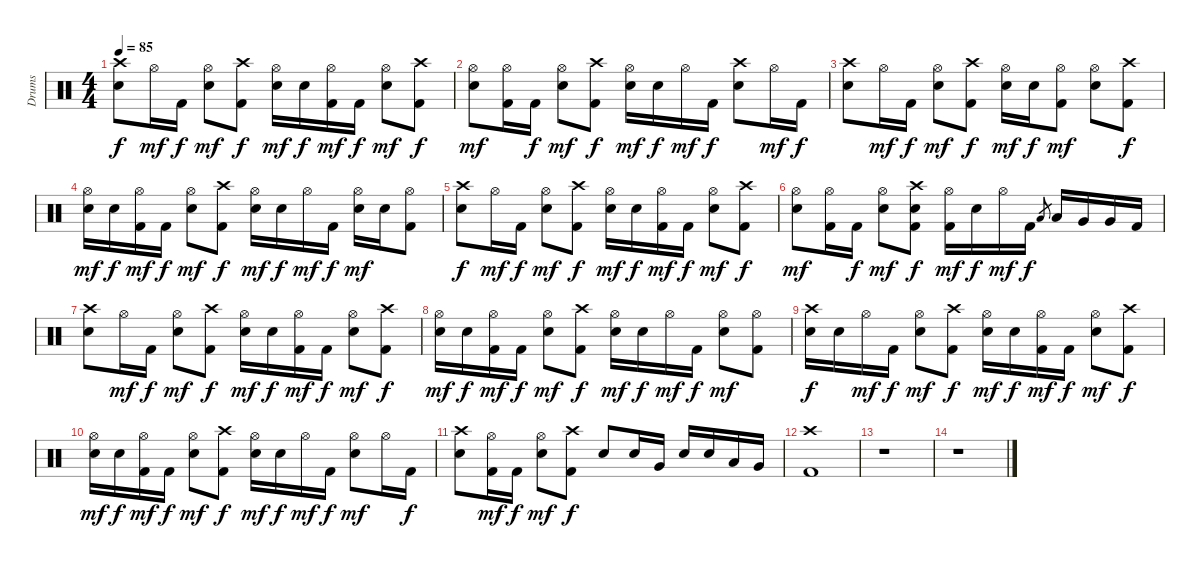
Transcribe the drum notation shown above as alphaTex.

\track ("Drums" "Drums") {instrument percussion}
\staff {score}
\articulation defaults
\ts (4 4)
\tempo 85
\clef neutral
\ks c
("Crash high (hit)" "Electric Snare (hit)").8{dy f} "Hi-Hat (open)".16{dy mf} "Kick (hit) 2".16{dy f} ("Hi-Hat (open)" "Electric Snare (hit)").8{dy mf} ("Crash high (hit)" "Kick (hit) 2").8{dy f} ("Hi-Hat (open)" "Electric Snare (hit)").16{dy mf} "Electric Snare (hit)".16{dy f} ("Hi-Hat (open)" "Kick (hit) 2").16{dy mf} "Kick (hit) 2".16{dy f} ("Hi-Hat (open)" "Electric Snare (hit)").8{dy mf} ("Crash high (hit)" "Kick (hit) 2").8{dy f} |
("Hi-Hat (open)" "Electric Snare (hit)").8{dy mf} ("Hi-Hat (open)" "Kick (hit) 2").16 "Kick (hit) 2".16{dy f} ("Hi-Hat (open)" "Electric Snare (hit)").8{dy mf} ("Crash high (hit)" "Kick (hit) 2").8{dy f} ("Hi-Hat (open)" "Electric Snare (hit)").16{dy mf} "Electric Snare (hit)".16{dy f} "Hi-Hat (open)".16{dy mf} "Kick (hit) 2".16{dy f} ("Crash high (hit)" "Electric Snare (hit)").8 "Hi-Hat (open)".16{dy mf} "Kick (hit) 2".16{dy f} |
("Crash high (hit)" "Electric Snare (hit)").8 "Hi-Hat (open)".16{dy mf} "Kick (hit) 2".16{dy f} ("Hi-Hat (open)" "Electric Snare (hit)").8{dy mf} ("Crash high (hit)" "Kick (hit) 2").8{dy f} ("Hi-Hat (open)" "Electric Snare (hit)").16{dy mf} "Electric Snare (hit)".16{dy f} ("Hi-Hat (open)" "Kick (hit) 2").8{dy mf} ("Hi-Hat (open)" "Electric Snare (hit)").8 ("Crash high (hit)" "Kick (hit) 2").8{dy f} |
("Hi-Hat (open)" "Electric Snare (hit)").16{dy mf} "Electric Snare (hit)".16{dy f} ("Hi-Hat (open)" "Kick (hit) 2").16{dy mf} "Kick (hit) 2".16{dy f} ("Hi-Hat (open)" "Electric Snare (hit)").8{dy mf} ("Crash high (hit)" "Kick (hit) 2").8{dy f} ("Hi-Hat (open)" "Electric Snare (hit)").16{dy mf} "Electric Snare (hit)".16{dy f} "Hi-Hat (open)".16{dy mf} "Kick (hit) 2".16{dy f} ("Hi-Hat (open)" "Electric Snare (hit)").16{dy mf} "Electric Snare (hit)".16 ("Hi-Hat (open)" "Kick (hit) 2").8 |
("Crash high (hit)" "Electric Snare (hit)").8{dy f} "Hi-Hat (open)".16{dy mf} "Kick (hit) 2".16{dy f} ("Hi-Hat (open)" "Electric Snare (hit)").8{dy mf} ("Crash high (hit)" "Kick (hit) 2").8{dy f} ("Hi-Hat (open)" "Electric Snare (hit)").16{dy mf} "Electric Snare (hit)".16{dy f} ("Hi-Hat (open)" "Kick (hit) 2").16{dy mf} "Kick (hit) 2".16{dy f} ("Hi-Hat (open)" "Electric Snare (hit)").8{dy mf} ("Crash high (hit)" "Kick (hit) 2").8{dy f} |
("Hi-Hat (open)" "Electric Snare (hit)").8{dy mf} ("Hi-Hat (open)" "Kick (hit) 2").16 "Kick (hit) 2".16{dy f} ("Hi-Hat (open)" "Electric Snare (hit)").8{dy mf} ("Crash high (hit)" "Electric Snare (hit)" "Kick (hit) 2").8{dy f} ("Hi-Hat (open)" "Kick (hit) 2").16{dy mf} "Electric Snare (hit)".16{dy f} "Hi-Hat (open)".16{dy mf} "Kick (hit) 2".16{dy f} "Low Tom (hit)".8{gr} "Low Tom (hit)".16 "Very Low Tom (hit)".16 "Very Low Tom (hit)".16 "Kick (hit) 2".16 |
("Crash high (hit)" "Electric Snare (hit)").8 "Hi-Hat (open)".16{dy mf} "Kick (hit) 2".16{dy f} ("Hi-Hat (open)" "Electric Snare (hit)").8{dy mf} ("Crash high (hit)" "Kick (hit) 2").8{dy f} ("Hi-Hat (open)" "Electric Snare (hit)").16{dy mf} "Electric Snare (hit)".16{dy f} ("Hi-Hat (open)" "Kick (hit) 2").16{dy mf} "Kick (hit) 2".16{dy f} ("Hi-Hat (open)" "Electric Snare (hit)").8{dy mf} ("Crash high (hit)" "Kick (hit) 2").8{dy f} |
("Hi-Hat (open)" "Electric Snare (hit)").16{dy mf} "Electric Snare (hit)".16{dy f} ("Hi-Hat (open)" "Kick (hit) 2").16{dy mf} "Kick (hit) 2".16{dy f} ("Hi-Hat (open)" "Electric Snare (hit)").8{dy mf} ("Crash high (hit)" "Kick (hit) 2").8{dy f} ("Hi-Hat (open)" "Electric Snare (hit)").16{dy mf} "Electric Snare (hit)".16{dy f} "Hi-Hat (open)".16{dy mf} "Kick (hit) 2".16{dy f} ("Hi-Hat (open)" "Electric Snare (hit)").8{dy mf} ("Hi-Hat (open)" "Kick (hit) 2").8 |
("Crash high (hit)" "Electric Snare (hit)").16{dy f} "Electric Snare (hit)".16 "Hi-Hat (open)".16{dy mf} "Kick (hit) 2".16{dy f} ("Hi-Hat (open)" "Electric Snare (hit)").8{dy mf} ("Crash high (hit)" "Kick (hit) 2").8{dy f} ("Hi-Hat (open)" "Electric Snare (hit)").16{dy mf} "Electric Snare (hit)".16{dy f} ("Hi-Hat (open)" "Kick (hit) 2").16{dy mf} "Kick (hit) 2".16{dy f} ("Hi-Hat (open)" "Electric Snare (hit)").8{dy mf} ("Crash high (hit)" "Kick (hit) 2").8{dy f} |
("Hi-Hat (open)" "Electric Snare (hit)").16{dy mf} "Electric Snare (hit)".16{dy f} ("Hi-Hat (open)" "Kick (hit) 2").16{dy mf} "Kick (hit) 2".16{dy f} ("Hi-Hat (open)" "Electric Snare (hit)").8{dy mf} ("Crash high (hit)" "Kick (hit) 2").8{dy f} ("Hi-Hat (open)" "Electric Snare (hit)").16{dy mf} "Electric Snare (hit)".16{dy f} "Hi-Hat (open)".16{dy mf} "Kick (hit) 2".16{dy f} ("Hi-Hat (open)" "Electric Snare (hit)").8{dy mf} "Hi-Hat (open)".16 "Kick (hit) 2".16{dy f} |
("Crash high (hit)" "Electric Snare (hit)").8 ("Hi-Hat (open)" "Kick (hit) 2").16{dy mf} "Kick (hit) 2".16{dy f} ("Hi-Hat (open)" "Electric Snare (hit)").8{dy mf} ("Crash high (hit)" "Kick (hit) 2").8{dy f} "Electric Snare (hit)".8 "Electric Snare (hit)".16 "Very Low Tom (hit)".16 "Electric Snare (hit)".16 "Electric Snare (hit)".16 "Low Tom (hit)".16 "Very Low Tom (hit)".16 |
("Crash high (hit)" "Kick (hit) 2").1 |
r.1 |
r.1
